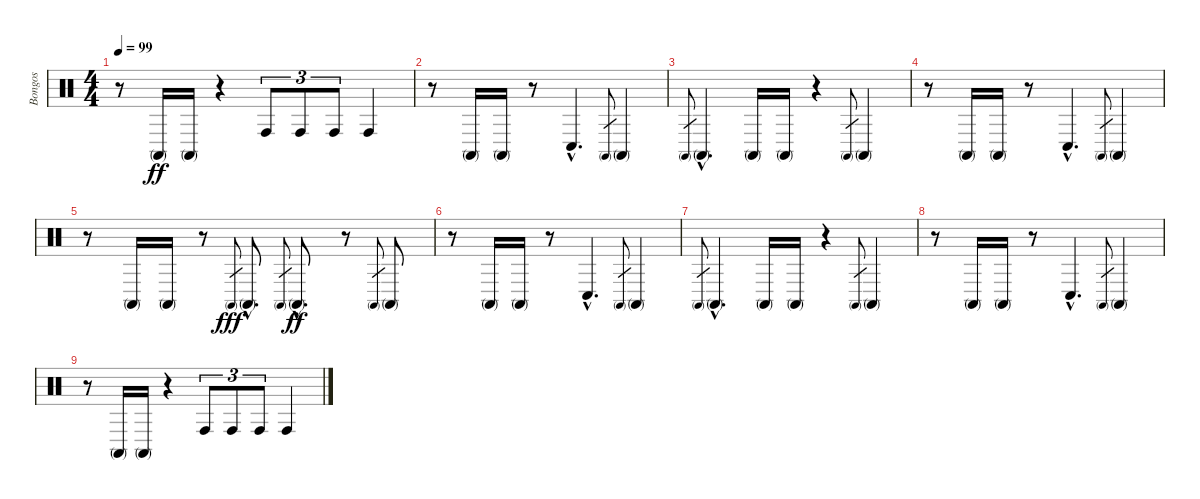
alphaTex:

\track ("Bongos" "Bongos") {instrument percussion}
\staff {score}
\articulation defaults
\ts (4 4)
\tempo 99
\clef neutral
\ks c
r.8{dy ff} "Conga high (mute)".16 "Conga high (mute)".16 r.4 "Conga high (hit)".8{tu (3 2) volume 7} "Conga high (hit)".8{tu (3 2)} "Conga high (hit)".8{tu (3 2)} "Conga high (hit)".4 |
r.8 "Conga high (mute)".16 "Conga high (mute)".16 r.8 "Conga low (hit)"{hac}.4{d} "Conga high (mute)".8{gr} "Conga high (mute)".4 |
"Conga high (mute)".8{gr} "Conga high (mute)"{hac}.4{d} "Conga high (mute)".16 "Conga high (mute)".16 r.4 "Conga high (mute)".8{gr} "Conga high (mute)".4 |
r.8 "Conga high (mute)".16 "Conga high (mute)".16 r.8 "Conga low (hit)"{hac}.4{d} "Conga high (mute)".8{gr} "Conga high (mute)".4 |
r.8 "Conga high (mute)".16 "Conga high (mute)".16 r.8 "Conga high (mute)".8{gr dy fff} "Conga high (mute)"{hac}.8{d} "Conga high (mute)".8{gr} "Conga high (mute)"{hac}.8{d dy ff volume 2} r.8 "Conga high (mute)".8{gr} "Conga high (mute)".8 |
r.8 "Conga high (mute)".16 "Conga high (mute)".16 r.8 "Conga low (hit)"{hac}.4{d} "Conga high (mute)".8{gr} "Conga high (mute)".4 |
"Conga high (mute)".8{gr} "Conga high (mute)"{hac}.4{d} "Conga high (mute)".16 "Conga high (mute)".16 r.4 "Conga high (mute)".8{gr} "Conga high (mute)".4 |
r.8 "Conga high (mute)".16 "Conga high (mute)".16 r.8 "Conga low (hit)"{hac}.4{d} "Conga high (mute)".8{gr} "Conga high (mute)".4 |
r.8 "Conga high (mute)".16 "Conga high (mute)".16 r.4 "Conga high (hit)".8{tu (3 2)} "Conga high (hit)".8{tu (3 2)} "Conga high (hit)".8{tu (3 2)} "Conga high (hit)".4
